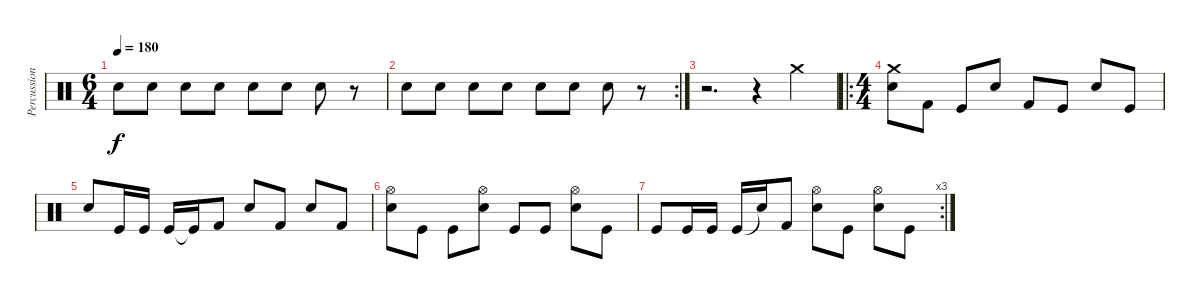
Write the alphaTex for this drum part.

\track ("Percussion" "Percussion") {instrument percussion}
\staff {score}
\articulation defaults
\ts (6 4)
\tempo 180
\clef neutral
\ks c "Snare (hit) 2".8{dy f} "Snare (hit) 2".8 "Snare (hit) 2".8 "Snare (hit) 2".8 "Snare (hit) 2".8 "Snare (hit) 2".8 "Snare (hit) 2".8
r.8 |
\rc 2 "Snare (hit) 2".8 "Snare (hit) 2".8 "Snare (hit) 2".8 "Snare (hit) 2".8 "Snare (hit) 2".8 "Snare (hit) 2".8 "Snare (hit) 2".8
r.8 |
r.2{d} r.4 "Crash medium (hit)".4 |
\ro
\ts (4 4)
("Crash medium (hit)" "Snare (hit) 2").8 "Kick (hit) 2".8 "Kick (hit)".8 "Snare (hit) 2".8 "Kick (hit) 2".8 "Kick (hit)".8 "Snare (hit) 2".8 "Kick (hit)".8 |
"Snare (hit) 2".8 "Kick (hit)".16 "Kick (hit)".16 "Kick (hit)".16 "Kick (hit)"{t}.16 "Kick (hit) 2".8 "Snare (hit) 2".8 "Kick (hit) 2".8 "Snare (hit) 2".8 "Kick (hit) 2".8 |
("Hi-Hat (open)" "Snare (hit) 2").8 "Kick (hit)".8 "Kick (hit)".8 ("Hi-Hat (open)" "Snare (hit) 2").8 "Kick (hit)".8 "Kick (hit)".8 ("Hi-Hat (open)" "Snare (hit) 2").8 "Kick (hit)".8 |
\rc 3 "Kick (hit)".8 "Kick (hit)".16 "Kick (hit)".16 "Kick (hit)".16 "Snare (hit)"{t}.16 "Kick (hit) 2".8
("Hi-Hat (open)" "Snare (hit) 2").8 "Kick (hit)".8 ("Hi-Hat (open)" "Snare (hit) 2").8 "Kick (hit)".8
